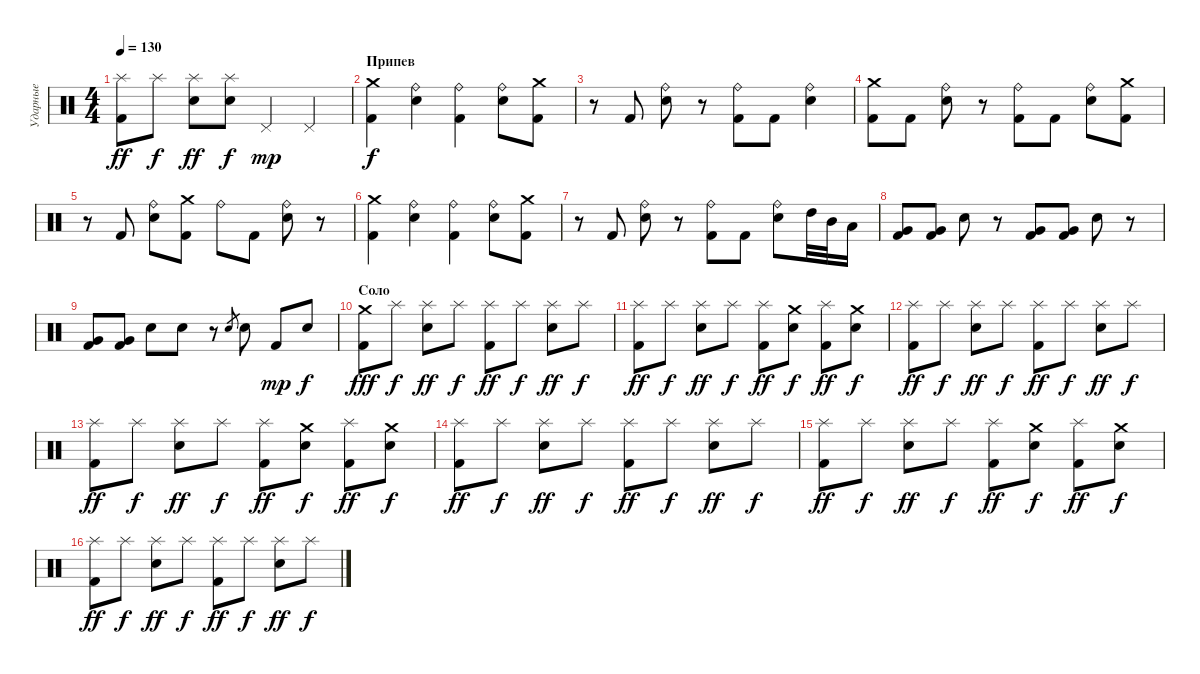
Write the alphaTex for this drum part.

\track ("Ударные" "Ударные") {instrument percussion}
\staff {score}
\articulation defaults
\ts (4 4)
\tempo 130
\clef neutral
\ks c
("Kick (hit) 2" "Splash (hit)").8{dy ff} "Splash (hit)".8{dy f} ("Electric Snare (hit)" "Splash (hit)").8{dy ff} ("Electric Snare (hit)" "Splash (hit)").8{dy f} "Pedal Hi-Hat (hit)".4{dy mp} "Pedal Hi-Hat (hit)".4 |
\section ("" "Припев")
("Kick (hit) 2" "Crash medium (hit)").4{dy f} ("Electric Snare (hit)" "Ride (bell)").4 ("Kick (hit) 2" "Ride (bell)").4 ("Electric Snare (hit)" "Ride (bell)").8 ("Kick (hit) 2" "Crash medium (hit)").8 |
r.8 "Kick (hit) 2".8 ("Electric Snare (hit)" "Ride (bell)").8 r.8 ("Kick (hit) 2" "Ride (bell)").8 "Kick (hit) 2".8 ("Electric Snare (hit)" "Ride (bell)").4 |
("Kick (hit) 2" "Crash medium (hit)").8 "Kick (hit) 2".8 ("Electric Snare (hit)" "Ride (bell)").8 r.8 ("Kick (hit) 2" "Ride (bell)").8 "Kick (hit) 2".8 ("Electric Snare (hit)" "Ride (bell)").8 ("Kick (hit) 2" "Crash medium (hit)").8 |
r.8 "Kick (hit) 2".8 ("Electric Snare (hit)" "Ride (bell)").8 ("Kick (hit) 2" "Crash medium (hit)").8 "Ride (bell)".8 "Kick (hit) 2".8 ("Electric Snare (hit)" "Ride (bell)").8 r.8 |
("Kick (hit) 2" "Crash medium (hit)").4 ("Electric Snare (hit)" "Ride (bell)").4 ("Kick (hit) 2" "Ride (bell)").4 ("Electric Snare (hit)" "Ride (bell)").8 ("Kick (hit) 2" "Crash medium (hit)").8 |
r.8 "Kick (hit) 2".8 ("Electric Snare (hit)" "Ride (bell)").8 r.8 ("Kick (hit) 2" "Ride (bell)").8 "Kick (hit) 2".8 ("Electric Snare (hit)" "Ride (bell)").8 "High Tom (hit)".32 "Mid Tom (hit)".32 "Low Tom (hit)".16 |
("Kick (hit) 2" "Very Low Tom (hit)").8 ("Kick (hit) 2" "Very Low Tom (hit)").8 "Electric Snare (hit)".8 r.8 ("Kick (hit) 2" "Very Low Tom (hit)").8 ("Kick (hit) 2" "Very Low Tom (hit)").8 "Electric Snare (hit)".8 r.8 |
("Kick (hit) 2" "Very Low Tom (hit)").8 ("Kick (hit) 2" "Very Low Tom (hit)").8 "Electric Snare (hit)".8 "Electric Snare (hit)".8 r.8 "Electric Snare (hit)".8{gr} "Electric Snare (hit)".8 "Kick (hit) 2".8{dy mp} "Electric Snare (hit)".8{dy f} |
\section ("" "Соло")
("Kick (hit) 2" "Crash medium (hit)").8{dy fff} "Splash (hit)".8{dy f} ("Electric Snare (hit)" "Splash (hit)").8{dy ff} "Splash (hit)".8{dy f} ("Kick (hit) 2" "Splash (hit)").8{dy ff} "Splash (hit)".8{dy f} ("Electric Snare (hit)" "Splash (hit)").8{dy ff} "Splash (hit)".8{dy f} |
("Kick (hit) 2" "Splash (hit)").8{dy ff} "Splash (hit)".8{dy f} ("Electric Snare (hit)" "Splash (hit)").8{dy ff} "Splash (hit)".8{dy f} ("Kick (hit) 2" "Splash (hit)").8{dy ff} ("Electric Snare (hit)" "Crash medium (hit)").8{dy f} ("Kick (hit) 2" "Splash (hit)").8{dy ff} ("Electric Snare (hit)" "Crash medium (hit)").8{dy f} |
("Kick (hit) 2" "Splash (hit)").8{dy ff} "Splash (hit)".8{dy f} ("Electric Snare (hit)" "Splash (hit)").8{dy ff} "Splash (hit)".8{dy f} ("Kick (hit) 2" "Splash (hit)").8{dy ff} "Splash (hit)".8{dy f} ("Electric Snare (hit)" "Splash (hit)").8{dy ff} "Splash (hit)".8{dy f} |
("Kick (hit) 2" "Splash (hit)").8{dy ff} "Splash (hit)".8{dy f} ("Electric Snare (hit)" "Splash (hit)").8{dy ff} "Splash (hit)".8{dy f} ("Kick (hit) 2" "Splash (hit)").8{dy ff} ("Electric Snare (hit)" "Crash medium (hit)").8{dy f} ("Kick (hit) 2" "Splash (hit)").8{dy ff} ("Electric Snare (hit)" "Crash medium (hit)").8{dy f} |
("Kick (hit) 2" "Splash (hit)").8{dy ff} "Splash (hit)".8{dy f} ("Electric Snare (hit)" "Splash (hit)").8{dy ff} "Splash (hit)".8{dy f} ("Kick (hit) 2" "Splash (hit)").8{dy ff} "Splash (hit)".8{dy f} ("Electric Snare (hit)" "Splash (hit)").8{dy ff} "Splash (hit)".8{dy f} |
("Kick (hit) 2" "Splash (hit)").8{dy ff} "Splash (hit)".8{dy f} ("Electric Snare (hit)" "Splash (hit)").8{dy ff} "Splash (hit)".8{dy f} ("Kick (hit) 2" "Splash (hit)").8{dy ff} ("Electric Snare (hit)" "Crash medium (hit)").8{dy f} ("Kick (hit) 2" "Splash (hit)").8{dy ff} ("Electric Snare (hit)" "Crash medium (hit)").8{dy f} |
("Kick (hit) 2" "Splash (hit)").8{dy ff} "Splash (hit)".8{dy f} ("Electric Snare (hit)" "Splash (hit)").8{dy ff} "Splash (hit)".8{dy f} ("Kick (hit) 2" "Splash (hit)").8{dy ff} "Splash (hit)".8{dy f} ("Electric Snare (hit)" "Splash (hit)").8{dy ff} "Splash (hit)".8{dy f}
